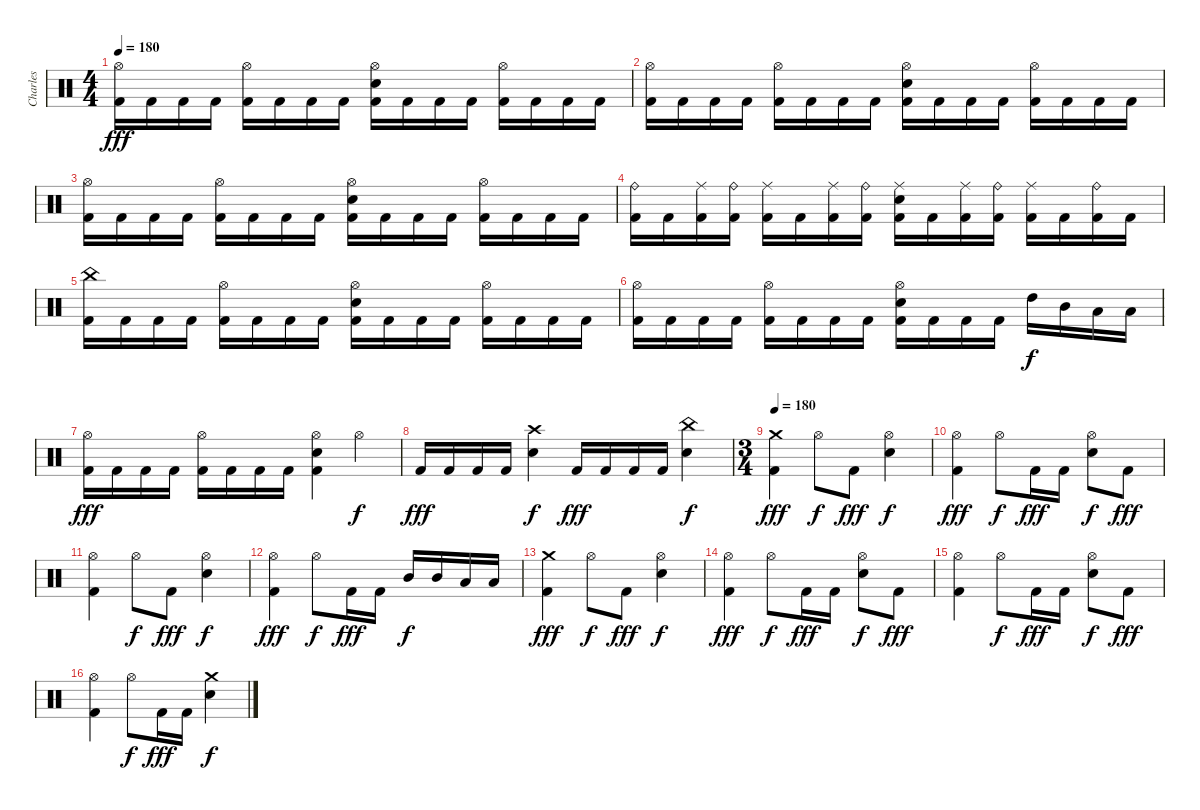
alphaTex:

\track ("Charles" "Charles") {instrument percussion}
\staff {score}
\articulation defaults
\ts (4 4)
\tempo 180
\clef neutral
\ks c
("Hi-Hat (open)" "Kick (hit) 2").16{dy fff} "Kick (hit) 2".16 "Kick (hit) 2".16 "Kick (hit) 2".16 ("Hi-Hat (open)" "Kick (hit) 2").16 "Kick (hit) 2".16 "Kick (hit) 2".16 "Kick (hit) 2".16 ("Hi-Hat (open)" "Electric Snare (hit)" "Kick (hit) 2").16 "Kick (hit) 2".16 "Kick (hit) 2".16 "Kick (hit) 2".16 ("Hi-Hat (open)" "Kick (hit) 2").16 "Kick (hit) 2".16 "Kick (hit) 2".16 "Kick (hit) 2".16 |
("Hi-Hat (open)" "Kick (hit) 2").16 "Kick (hit) 2".16 "Kick (hit) 2".16 "Kick (hit) 2".16 ("Hi-Hat (open)" "Kick (hit) 2").16 "Kick (hit) 2".16 "Kick (hit) 2".16 "Kick (hit) 2".16 ("Hi-Hat (open)" "Electric Snare (hit)" "Kick (hit) 2").16 "Kick (hit) 2".16 "Kick (hit) 2".16 "Kick (hit) 2".16 ("Hi-Hat (open)" "Kick (hit) 2").16 "Kick (hit) 2".16 "Kick (hit) 2".16 "Kick (hit) 2".16 |
("Hi-Hat (open)" "Kick (hit) 2").16 "Kick (hit) 2".16 "Kick (hit) 2".16 "Kick (hit) 2".16 ("Hi-Hat (open)" "Kick (hit) 2").16 "Kick (hit) 2".16 "Kick (hit) 2".16 "Kick (hit) 2".16 ("Hi-Hat (open)" "Electric Snare (hit)" "Kick (hit) 2").16 "Kick (hit) 2".16 "Kick (hit) 2".16 "Kick (hit) 2".16 ("Hi-Hat (open)" "Kick (hit) 2").16 "Kick (hit) 2".16 "Kick (hit) 2".16 "Kick (hit) 2".16 |
("Ride (bell)" "Kick (hit) 2").16 "Kick (hit) 2".16 ("Ride (middle)" "Kick (hit) 2").16 ("Ride (bell)" "Kick (hit) 2").16 ("Ride (middle)" "Kick (hit) 2").16 "Kick (hit) 2".16 ("Ride (middle)" "Kick (hit) 2").16 ("Ride (bell)" "Kick (hit) 2").16 ("Electric Snare (hit)" "Ride (middle)" "Kick (hit) 2").16 "Kick (hit) 2".16 ("Ride (middle)" "Kick (hit) 2").16 ("Ride (bell)" "Kick (hit) 2").16 ("Ride (middle)" "Kick (hit) 2").16 "Kick (hit) 2".16 ("Ride (bell)" "Kick (hit) 2").16 "Kick (hit) 2".16 |
("China (hit)" "Kick (hit) 2").16 "Kick (hit) 2".16 "Kick (hit) 2".16 "Kick (hit) 2".16 ("Hi-Hat (open)" "Kick (hit) 2").16 "Kick (hit) 2".16 "Kick (hit) 2".16 "Kick (hit) 2".16 ("Hi-Hat (open)" "Electric Snare (hit)" "Kick (hit) 2").16 "Kick (hit) 2".16 "Kick (hit) 2".16 "Kick (hit) 2".16 ("Hi-Hat (open)" "Kick (hit) 2").16 "Kick (hit) 2".16 "Kick (hit) 2".16 "Kick (hit) 2".16 |
("Hi-Hat (open)" "Kick (hit) 2").16 "Kick (hit) 2".16 "Kick (hit) 2".16 "Kick (hit) 2".16 ("Hi-Hat (open)" "Kick (hit) 2").16 "Kick (hit) 2".16 "Kick (hit) 2".16 "Kick (hit) 2".16 ("Hi-Hat (open)" "Electric Snare (hit)" "Kick (hit) 2").16 "Kick (hit) 2".16 "Kick (hit) 2".16 "Kick (hit) 2".16 "High Tom (hit)".16{dy f} "Mid Tom (hit)".16 "Low Tom (hit)".16 "Low Tom (hit)".16 |
("Hi-Hat (open)" "Kick (hit) 2").16{dy fff} "Kick (hit) 2".16 "Kick (hit) 2".16 "Kick (hit) 2".16 ("Hi-Hat (open)" "Kick (hit) 2").16 "Kick (hit) 2".16 "Kick (hit) 2".16 "Kick (hit) 2".16 ("Hi-Hat (open)" "Electric Snare (hit)" "Kick (hit) 2").4 "Hi-Hat (open)".4{dy f} |
"Kick (hit) 2".16{dy fff} "Kick (hit) 2".16 "Kick (hit) 2".16 "Kick (hit) 2".16 ("Crash high (hit)" "Electric Snare (hit)").4{dy f} "Kick (hit) 2".16{dy fff} "Kick (hit) 2".16 "Kick (hit) 2".16 "Kick (hit) 2".16 ("China (hit)" "Electric Snare (hit)").4{dy f} |
\ts (3 4)
\tempo 180
("Crash medium (hit)" "Kick (hit) 2").4{dy fff} "Hi-Hat (open)".8{dy f} "Kick (hit) 2".8{dy fff} ("Hi-Hat (open)" "Electric Snare (hit)").4{dy f} |
("Hi-Hat (open)" "Kick (hit) 2").4{dy fff} "Hi-Hat (open)".8{dy f} "Kick (hit) 2".16{dy fff} "Kick (hit) 2".16 ("Hi-Hat (open)" "Electric Snare (hit)").8{dy f} "Kick (hit) 2".8{dy fff} |
("Hi-Hat (open)" "Kick (hit) 2").4 "Hi-Hat (open)".8{dy f} "Kick (hit) 2".8{dy fff} ("Hi-Hat (open)" "Electric Snare (hit)").4{dy f} |
("Hi-Hat (open)" "Kick (hit) 2").4{dy fff} "Hi-Hat (open)".8{dy f} "Kick (hit) 2".16{dy fff} "Kick (hit) 2".16 "Mid Tom (hit)".16{dy f} "Mid Tom (hit)".16 "Low Tom (hit)".16 "Low Tom (hit)".16 |
("Crash medium (hit)" "Kick (hit) 2").4{dy fff} "Hi-Hat (open)".8{dy f} "Kick (hit) 2".8{dy fff} ("Hi-Hat (open)" "Electric Snare (hit)").4{dy f} |
("Hi-Hat (open)" "Kick (hit) 2").4{dy fff} "Hi-Hat (open)".8{dy f} "Kick (hit) 2".16{dy fff} "Kick (hit) 2".16 ("Hi-Hat (open)" "Electric Snare (hit)").8{dy f} "Kick (hit) 2".8{dy fff} |
("Hi-Hat (open)" "Kick (hit) 2").4 "Hi-Hat (open)".8{dy f} "Kick (hit) 2".16{dy fff} "Kick (hit) 2".16 ("Hi-Hat (open)" "Electric Snare (hit)").8{dy f} "Kick (hit) 2".8{dy fff} |
("Hi-Hat (open)" "Kick (hit) 2").4 "Hi-Hat (open)".8{dy f} "Kick (hit) 2".16{dy fff} "Kick (hit) 2".16 ("Crash medium (hit)" "Electric Snare (hit)").4{dy f}
